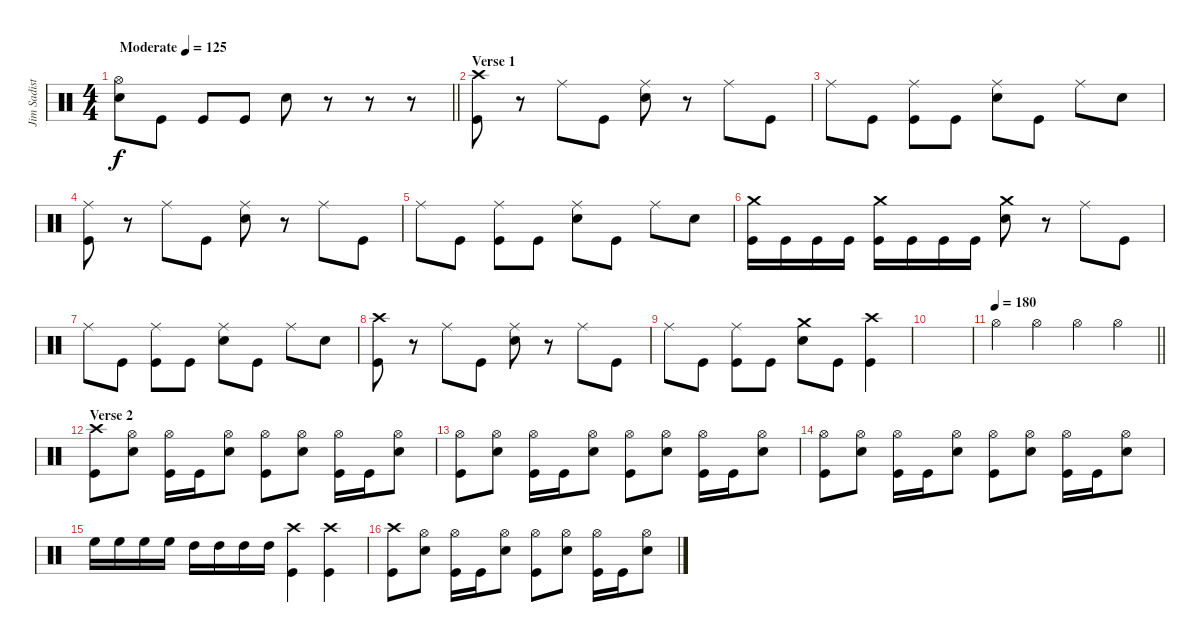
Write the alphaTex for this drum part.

\track ("Jim Sadist" "Jim Sadist") {instrument percussion}
\staff {score}
\articulation defaults
\ts (4 4)
\tempo (125 "Moderate")
\clef neutral
\barLineRight lightlight
\ks c
("Hi-Hat (open)" "Electric Snare (hit)").8{dy f} "Kick (hit)".8 "Kick (hit)".8 "Kick (hit)".8 "Electric Snare (hit)".8 r.8 r.8 r.8 |
\section ("" "Verse 1")
("Crash high (hit)" "Kick (hit)").8 r.8 "Ride (middle)".8 "Kick (hit)".8 ("Ride (middle)" "Electric Snare (hit)").8 r.8 "Ride (middle)".8 "Kick (hit)".8 |
"Ride (middle)".8 "Kick (hit)".8 ("Ride (middle)" "Kick (hit)").8 "Kick (hit)".8 ("Ride (middle)" "Electric Snare (hit)").8 "Kick (hit)".8 "Ride (middle)".8 "Electric Snare (hit)".8 |
("Ride (middle)" "Kick (hit)").8 r.8 "Ride (middle)".8 "Kick (hit)".8 ("Ride (middle)" "Electric Snare (hit)").8 r.8 "Ride (middle)".8 "Kick (hit)".8 |
"Ride (middle)".8 "Kick (hit)".8 ("Ride (middle)" "Kick (hit)").8 "Kick (hit)".8 ("Ride (middle)" "Electric Snare (hit)").8 "Kick (hit)".8 "Ride (middle)".8 "Electric Snare (hit)".8 |
("Kick (hit)" "Crash medium (hit)").16 "Kick (hit)".16 "Kick (hit)".16 "Kick (hit)".16 ("Kick (hit)" "Crash medium (hit)").16 "Kick (hit)".16 "Kick (hit)".16 "Kick (hit)".16 ("Electric Snare (hit)" "Crash medium (hit)").8 r.8 "Ride (middle)".8 "Kick (hit)".8 |
"Ride (middle)".8 "Kick (hit)".8 ("Ride (middle)" "Kick (hit)").8 "Kick (hit)".8 ("Ride (middle)" "Electric Snare (hit)").8 "Kick (hit)".8 "Ride (middle)".8 "Electric Snare (hit)".8 |
("Crash high (hit)" "Kick (hit)").8 r.8 "Ride (middle)".8 "Kick (hit)".8 ("Ride (middle)" "Electric Snare (hit)").8 r.8 "Ride (middle)".8 "Kick (hit)".8 |
"Ride (middle)".8 "Kick (hit)".8 ("Ride (middle)" "Kick (hit)").8 "Kick (hit)".8 ("Crash medium (hit)" "Electric Snare (hit)").8 "Kick (hit)".8 ("Crash high (hit)" "Kick (hit)").4 |
|
\tempo 180
\barLineRight lightlight "Hi-Hat (open)".4 "Hi-Hat (open)".4 "Hi-Hat (open)".4 "Hi-Hat (open)".4
|
\section ("" "Verse 2")
("Kick (hit)" "Crash high (hit)").8 ("Electric Snare (hit)" "Hi-Hat (open)").8 ("Kick (hit)" "Hi-Hat (open)").16 "Kick (hit)".16 ("Electric Snare (hit)" "Hi-Hat (open)").8 ("Kick (hit)" "Hi-Hat (open)").8 ("Electric Snare (hit)" "Hi-Hat (open)").8 ("Kick (hit)" "Hi-Hat (open)").16 "Kick (hit)".16 ("Electric Snare (hit)" "Hi-Hat (open)").8 |
("Kick (hit)" "Hi-Hat (open)").8 ("Electric Snare (hit)" "Hi-Hat (open)").8 ("Kick (hit)" "Hi-Hat (open)").16 "Kick (hit)".16 ("Electric Snare (hit)" "Hi-Hat (open)").8 ("Kick (hit)" "Hi-Hat (open)").8 ("Electric Snare (hit)" "Hi-Hat (open)").8 ("Kick (hit)" "Hi-Hat (open)").16 "Kick (hit)".16 ("Electric Snare (hit)" "Hi-Hat (open)").8 |
("Kick (hit)" "Hi-Hat (open)").8 ("Electric Snare (hit)" "Hi-Hat (open)").8 ("Kick (hit)" "Hi-Hat (open)").16 "Kick (hit)".16 ("Electric Snare (hit)" "Hi-Hat (open)").8 ("Kick (hit)" "Hi-Hat (open)").8 ("Electric Snare (hit)" "Hi-Hat (open)").8 ("Kick (hit)" "Hi-Hat (open)").16 "Kick (hit)".16 ("Electric Snare (hit)" "Hi-Hat (open)").8 |
"High Floor Tom (hit)".16 "High Floor Tom (hit)".16 "High Floor Tom (hit)".16 "High Floor Tom (hit)".16 "High Tom (hit)".16 "High Tom (hit)".16 "High Tom (hit)".16 "High Tom (hit)".16 ("Crash high (hit)" "Kick (hit)").4 ("Crash high (hit)" "Kick (hit)").4 |
("Kick (hit)" "Crash high (hit)").8 ("Electric Snare (hit)" "Hi-Hat (open)").8 ("Kick (hit)" "Hi-Hat (open)").16 "Kick (hit)".16 ("Electric Snare (hit)" "Hi-Hat (open)").8 ("Kick (hit)" "Hi-Hat (open)").8 ("Electric Snare (hit)" "Hi-Hat (open)").8 ("Kick (hit)" "Hi-Hat (open)").16 "Kick (hit)".16 ("Electric Snare (hit)" "Hi-Hat (open)").8
